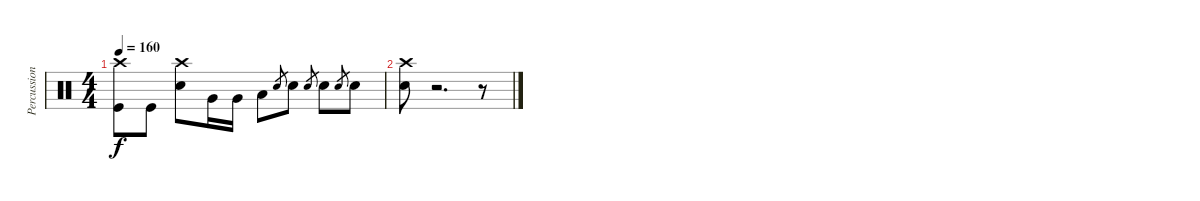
\track ("Percussion" "Percussion") {instrument percussion}
\staff {score}
\articulation defaults
\ts (4 4)
\tempo 160
\clef neutral
\ks c
("Crash high (hit)" "Kick (hit)").8{dy f} "Kick (hit)".8 ("Crash high (hit)" "Electric Snare (hit)").8 "Very Low Tom (hit)".16 "Very Low Tom (hit)".16 "Low Floor Tom (hit)".8 "Electric Snare (hit)".8{gr} "Electric Snare (hit)".8 "Electric Snare (hit)".8{gr} "Electric Snare (hit)".8 "Electric Snare (hit)".8{gr} "Electric Snare (hit)".8 |
("Crash high (hit)" "Electric Snare (hit)").8 r.2{d} r.8
